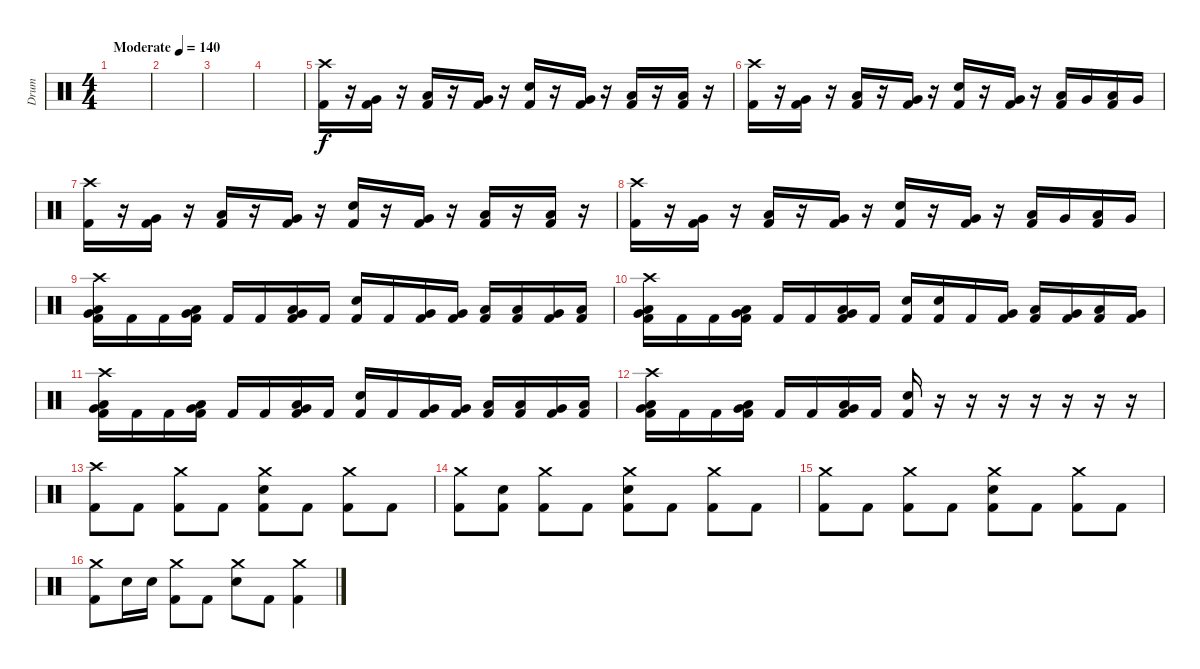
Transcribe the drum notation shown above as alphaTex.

\track ("Drum" "Drum") {instrument percussion}
\staff {score}
\articulation defaults
\ts (4 4)
\tempo (140 "Moderate")
\clef neutral
\ks c
|
|
|
|
("Crash high (hit)" "Kick (hit) 2").16 r.16 ("Very Low Tom (hit)" "Kick (hit) 2").16 r.16 ("Low Tom (hit)" "Kick (hit) 2").16 r.16 ("Very Low Tom (hit)" "Kick (hit) 2").16 r.16 ("Electric Snare (hit)" "Kick (hit) 2").16 r.16 ("Very Low Tom (hit)" "Kick (hit) 2").16 r.16 ("Low Floor Tom (hit)" "Kick (hit) 2").16 r.16 ("Low Tom (hit)" "Kick (hit) 2").16 r.16 |
("Crash high (hit)" "Kick (hit) 2").16 r.16 ("Very Low Tom (hit)" "Kick (hit) 2").16 r.16 ("Low Tom (hit)" "Kick (hit) 2").16 r.16 ("Very Low Tom (hit)" "Kick (hit) 2").16 r.16 ("Electric Snare (hit)" "Kick (hit) 2").16 r.16 ("Very Low Tom (hit)" "Kick (hit) 2").16 r.16 ("Low Floor Tom (hit)" "Kick (hit) 2").16 "Very Low Tom (hit)".16 ("Low Tom (hit)" "Kick (hit) 2").16 "Very Low Tom (hit)".16 |
("Crash high (hit)" "Kick (hit) 2").16 r.16 ("Very Low Tom (hit)" "Kick (hit) 2").16 r.16 ("Low Tom (hit)" "Kick (hit) 2").16 r.16 ("Very Low Tom (hit)" "Kick (hit) 2").16 r.16 ("Electric Snare (hit)" "Kick (hit) 2").16 r.16 ("Very Low Tom (hit)" "Kick (hit) 2").16 r.16 ("Low Floor Tom (hit)" "Kick (hit) 2").16 r.16 ("Low Tom (hit)" "Kick (hit) 2").16 r.16 |
("Crash high (hit)" "Kick (hit) 2").16 r.16 ("Very Low Tom (hit)" "Kick (hit) 2").16 r.16 ("Low Tom (hit)" "Kick (hit) 2").16 r.16 ("Very Low Tom (hit)" "Kick (hit) 2").16 r.16 ("Electric Snare (hit)" "Kick (hit) 2").16 r.16 ("Very Low Tom (hit)" "Kick (hit) 2").16 r.16 ("Low Floor Tom (hit)" "Kick (hit) 2").16 "Very Low Tom (hit)".16 ("Low Tom (hit)" "Kick (hit) 2").16 "Very Low Tom (hit)".16 |
("Crash high (hit)" "Low Floor Tom (hit)" "Very Low Tom (hit)" "Kick (hit) 2").16 "Kick (hit) 2".16 "Kick (hit) 2".16 ("Very Low Tom (hit)" "Low Tom (hit)" "Kick (hit) 2").16 "Kick (hit) 2".16 "Kick (hit) 2".16 ("Low Floor Tom (hit)" "Very Low Tom (hit)" "Kick (hit) 2").16 "Kick (hit) 2".16 ("Electric Snare (hit)" "Kick (hit) 2").16 "Kick (hit) 2".16 ("Very Low Tom (hit)" "Kick (hit) 2").16 ("Very Low Tom (hit)" "Kick (hit) 2").16 ("Low Floor Tom (hit)" "Kick (hit) 2").16 ("Low Floor Tom (hit)" "Kick (hit) 2").16 ("Very Low Tom (hit)" "Kick (hit) 2").16 ("Low Tom (hit)" "Kick (hit) 2").16 |
("Crash high (hit)" "Low Floor Tom (hit)" "Very Low Tom (hit)" "Kick (hit) 2").16 "Kick (hit) 2".16 "Kick (hit) 2".16 ("Low Tom (hit)" "Very Low Tom (hit)" "Kick (hit) 2").16 "Kick (hit) 2".16 "Kick (hit) 2".16 ("Very Low Tom (hit)" "Low Floor Tom (hit)" "Kick (hit) 2").16 "Kick (hit) 2".16 ("Electric Snare (hit)" "Kick (hit) 2").16 ("Electric Snare (hit)" "Kick (hit) 2").16 "Kick (hit) 2".16 ("Very Low Tom (hit)" "Kick (hit) 2").16 ("Low Floor Tom (hit)" "Kick (hit) 2").16 ("Very Low Tom (hit)" "Kick (hit) 2").16 ("Low Tom (hit)" "Kick (hit) 2").16 ("Very Low Tom (hit)" "Kick (hit) 2").16 |
("Crash high (hit)" "Low Floor Tom (hit)" "Very Low Tom (hit)" "Kick (hit) 2").16 "Kick (hit) 2".16 "Kick (hit) 2".16 ("Very Low Tom (hit)" "Low Tom (hit)" "Kick (hit) 2").16 "Kick (hit) 2".16 "Kick (hit) 2".16 ("Low Floor Tom (hit)" "Very Low Tom (hit)" "Kick (hit) 2").16 "Kick (hit) 2".16 ("Electric Snare (hit)" "Kick (hit) 2").16 "Kick (hit) 2".16 ("Very Low Tom (hit)" "Kick (hit) 2").16 ("Very Low Tom (hit)" "Kick (hit) 2").16 ("Low Floor Tom (hit)" "Kick (hit) 2").16 ("Low Floor Tom (hit)" "Kick (hit) 2").16 ("Very Low Tom (hit)" "Kick (hit) 2").16 ("Low Tom (hit)" "Kick (hit) 2").16 |
("Crash high (hit)" "Low Floor Tom (hit)" "Very Low Tom (hit)" "Kick (hit) 2").16 "Kick (hit) 2".16 "Kick (hit) 2".16 ("Low Tom (hit)" "Very Low Tom (hit)" "Kick (hit) 2").16 "Kick (hit) 2".16 "Kick (hit) 2".16 ("Very Low Tom (hit)" "Low Floor Tom (hit)" "Kick (hit) 2").16 "Kick (hit) 2".16 ("Electric Snare (hit)" "Kick (hit) 2").16 r.16 r.16 r.16 r.16 r.16 r.16 r.16 |
("Crash high (hit)" "Kick (hit) 2").8 "Kick (hit) 2".8 ("Crash medium (hit)" "Kick (hit) 2").8 "Kick (hit) 2".8 ("Crash medium (hit)" "Electric Snare (hit)" "Kick (hit) 2").8 "Kick (hit) 2".8 ("Crash medium (hit)" "Kick (hit) 2").8 "Kick (hit) 2".8 |
("Crash medium (hit)" "Kick (hit) 2").8 ("Electric Snare (hit)" "Kick (hit) 2").8 ("Crash medium (hit)" "Kick (hit) 2").8 "Kick (hit) 2".8 ("Crash medium (hit)" "Electric Snare (hit)" "Kick (hit) 2").8 "Kick (hit) 2".8 ("Crash medium (hit)" "Kick (hit) 2").8 "Kick (hit) 2".8 |
("Crash medium (hit)" "Kick (hit) 2").8 "Kick (hit) 2".8 ("Crash medium (hit)" "Kick (hit) 2").8 "Kick (hit) 2".8 ("Crash medium (hit)" "Electric Snare (hit)" "Kick (hit) 2").8 "Kick (hit) 2".8 ("Crash medium (hit)" "Kick (hit) 2").8 "Kick (hit) 2".8 |
("Crash medium (hit)" "Kick (hit) 2").8 "Electric Snare (hit)".16 "Electric Snare (hit)".16 ("Crash medium (hit)" "Kick (hit) 2").8 "Kick (hit) 2".8 ("Crash medium (hit)" "Electric Snare (hit)").8 "Kick (hit) 2".8 ("Crash medium (hit)" "Kick (hit) 2").4
